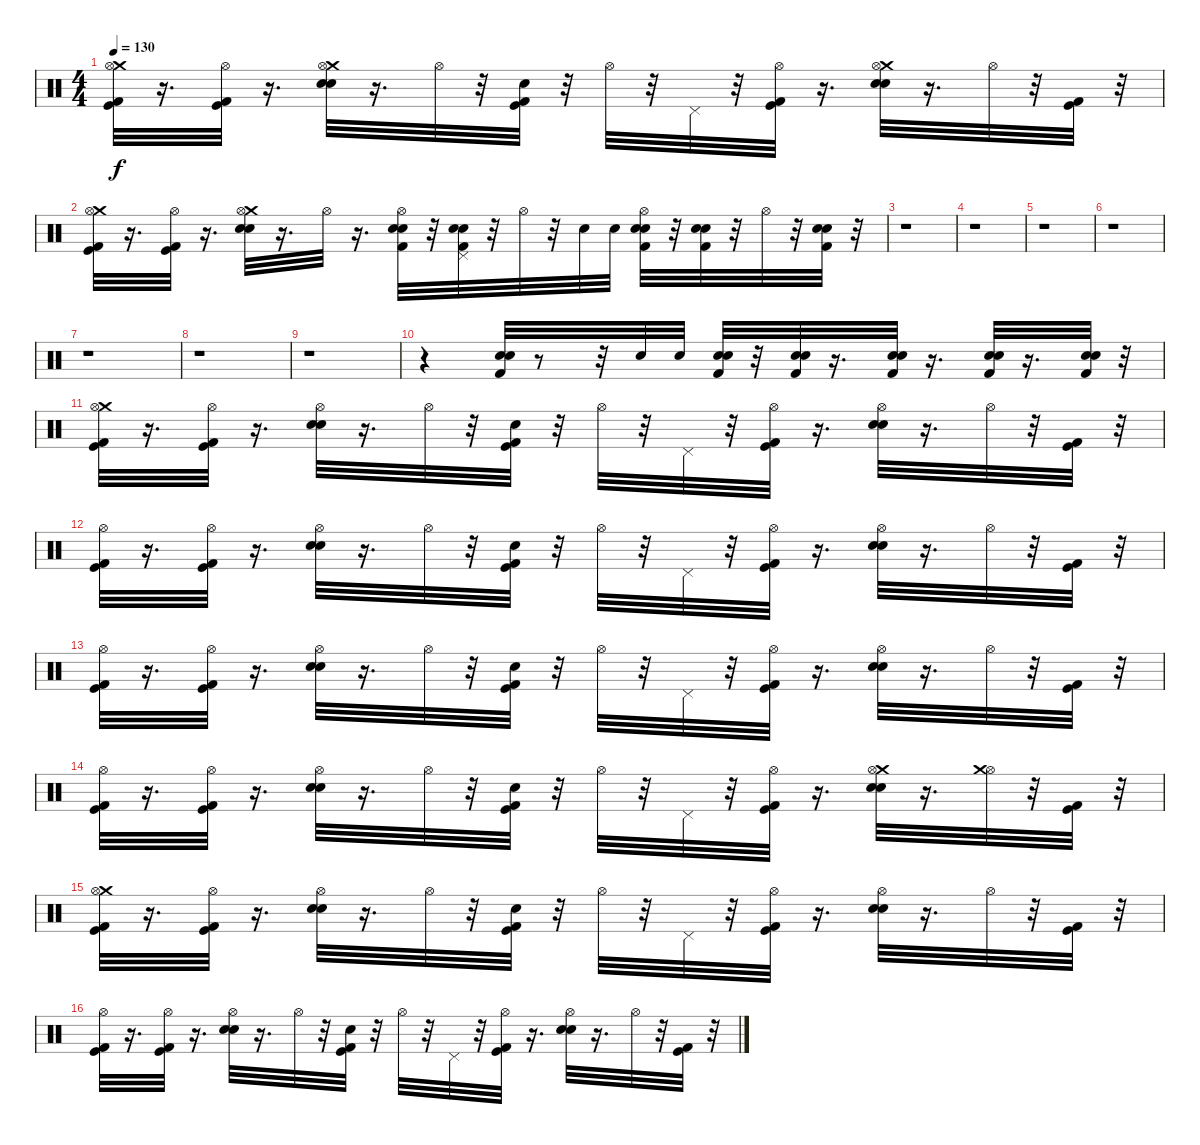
\track "" {instrument percussion}
\staff {score}
\articulation defaults
\ts (4 4)
\tempo 130
\clef neutral
\ks c
("Kick (hit) 2" "Kick (hit)" "Crash medium (hit)" "Hi-Hat (open)").32{dy f} r.16{d} ("Kick (hit) 2" "Kick (hit)" "Hi-Hat (open)").32 r.16{d} ("Snare (hit) 2" "Electric Snare (hit)" "Crash medium (hit)" "Hi-Hat (open)").32 r.16{d} "Hi-Hat (open)".32 r.32 ("Kick (hit) 2" "Kick (hit)" "Electric Snare (hit)").32 r.32 "Hi-Hat (open)".32 r.32 "Pedal Hi-Hat (hit)".32 r.32 ("Kick (hit) 2" "Kick (hit)" "Hi-Hat (open)").32 r.16{d} ("Snare (hit) 2" "Electric Snare (hit)" "Crash medium (hit)" "Hi-Hat (open)").32 r.16{d} "Hi-Hat (open)".32 r.32 ("Kick (hit) 2" "Kick (hit)").32 r.32 |
("Kick (hit) 2" "Kick (hit)" "Crash medium (hit)" "Hi-Hat (open)").32 r.16{d} ("Kick (hit) 2" "Kick (hit)" "Hi-Hat (open)").32 r.16{d} ("Snare (hit) 2" "Electric Snare (hit)" "Crash medium (hit)" "Hi-Hat (open)").32 r.16{d} "Hi-Hat (open)".32 r.16{d} ("Hi-Hat (open)" "Electric Snare (hit)" "Snare (hit) 2" "Kick (hit) 2").32 r.32 ("Electric Snare (hit)" "Snare (hit) 2" "Kick (hit) 2" "Pedal Hi-Hat (hit)").32 r.32 "Hi-Hat (open)".32 r.32 "Electric Snare (hit)".32 "Electric Snare (hit)".32 ("Hi-Hat (open)" "Snare (hit) 2" "Electric Snare (hit)" "Kick (hit) 2").32 r.32 ("Electric Snare (hit)" "Snare (hit) 2" "Kick (hit) 2").32 r.32 "Hi-Hat (open)".32 r.32 ("Electric Snare (hit)" "Snare (hit) 2" "Kick (hit) 2").32 r.32 |
r.1 |
r.1 |
r.1 |
r.1 |
r.1 |
r.1 |
r.1 |
r.4 ("Electric Snare (hit)" "Snare (hit) 2" "Kick (hit) 2").32 r.8 r.32 "Electric Snare (hit)".32 "Electric Snare (hit)".32 ("Snare (hit) 2" "Electric Snare (hit)" "Kick (hit) 2").32 r.32 ("Electric Snare (hit)" "Snare (hit) 2" "Kick (hit) 2").32 r.16{d} ("Electric Snare (hit)" "Snare (hit) 2" "Kick (hit) 2").32 r.16{d} ("Electric Snare (hit)" "Snare (hit) 2" "Kick (hit) 2").32 r.16{d} ("Electric Snare (hit)" "Snare (hit) 2" "Kick (hit) 2").32 r.32 |
("Kick (hit) 2" "Kick (hit)" "Crash medium (hit)" "Hi-Hat (open)").32 r.16{d} ("Kick (hit) 2" "Kick (hit)" "Hi-Hat (open)").32 r.16{d} ("Snare (hit) 2" "Electric Snare (hit)" "Hi-Hat (open)").32 r.16{d} "Hi-Hat (open)".32 r.32 ("Kick (hit) 2" "Kick (hit)" "Electric Snare (hit)").32 r.32 "Hi-Hat (open)".32 r.32 "Pedal Hi-Hat (hit)".32 r.32 ("Kick (hit) 2" "Kick (hit)" "Hi-Hat (open)").32 r.16{d} ("Snare (hit) 2" "Electric Snare (hit)" "Hi-Hat (open)").32 r.16{d} "Hi-Hat (open)".32 r.32 ("Kick (hit) 2" "Kick (hit)").32 r.32 |
("Kick (hit) 2" "Kick (hit)" "Hi-Hat (open)").32 r.16{d} ("Kick (hit) 2" "Kick (hit)" "Hi-Hat (open)").32 r.16{d} ("Snare (hit) 2" "Electric Snare (hit)" "Hi-Hat (open)").32 r.16{d} "Hi-Hat (open)".32 r.32 ("Kick (hit) 2" "Kick (hit)" "Electric Snare (hit)").32 r.32 "Hi-Hat (open)".32 r.32 "Pedal Hi-Hat (hit)".32 r.32 ("Kick (hit) 2" "Kick (hit)" "Hi-Hat (open)").32 r.16{d} ("Snare (hit) 2" "Electric Snare (hit)" "Hi-Hat (open)").32 r.16{d} "Hi-Hat (open)".32 r.32 ("Kick (hit) 2" "Kick (hit)").32 r.32 |
("Kick (hit) 2" "Kick (hit)" "Hi-Hat (open)").32 r.16{d} ("Kick (hit) 2" "Kick (hit)" "Hi-Hat (open)").32 r.16{d} ("Snare (hit) 2" "Electric Snare (hit)" "Hi-Hat (open)").32 r.16{d} "Hi-Hat (open)".32 r.32 ("Kick (hit) 2" "Kick (hit)" "Electric Snare (hit)").32 r.32 "Hi-Hat (open)".32 r.32 "Pedal Hi-Hat (hit)".32 r.32 ("Kick (hit) 2" "Kick (hit)" "Hi-Hat (open)").32 r.16{d} ("Snare (hit) 2" "Electric Snare (hit)" "Hi-Hat (open)").32 r.16{d} "Hi-Hat (open)".32 r.32 ("Kick (hit) 2" "Kick (hit)").32 r.32 |
("Kick (hit) 2" "Kick (hit)" "Hi-Hat (open)").32 r.16{d} ("Kick (hit) 2" "Kick (hit)" "Hi-Hat (open)").32 r.16{d} ("Snare (hit) 2" "Electric Snare (hit)" "Hi-Hat (open)").32 r.16{d} "Hi-Hat (open)".32 r.32 ("Kick (hit) 2" "Kick (hit)" "Electric Snare (hit)").32 r.32 "Hi-Hat (open)".32 r.32 "Pedal Hi-Hat (hit)".32 r.32 ("Kick (hit) 2" "Kick (hit)" "Hi-Hat (open)").32 r.16{d} ("Snare (hit) 2" "Electric Snare (hit)" "Crash medium (hit)" "Hi-Hat (open)").32 r.16{d} ("Hi-Hat (open)" "Crash medium (hit)").32 r.32 ("Kick (hit) 2" "Kick (hit)").32 r.32 |
("Kick (hit) 2" "Kick (hit)" "Crash medium (hit)" "Hi-Hat (open)").32 r.16{d} ("Kick (hit) 2" "Kick (hit)" "Hi-Hat (open)").32 r.16{d} ("Snare (hit) 2" "Electric Snare (hit)" "Hi-Hat (open)").32 r.16{d} "Hi-Hat (open)".32 r.32 ("Kick (hit) 2" "Kick (hit)" "Electric Snare (hit)").32 r.32 "Hi-Hat (open)".32 r.32 "Pedal Hi-Hat (hit)".32 r.32 ("Kick (hit) 2" "Kick (hit)" "Hi-Hat (open)").32 r.16{d} ("Snare (hit) 2" "Electric Snare (hit)" "Hi-Hat (open)").32 r.16{d} "Hi-Hat (open)".32 r.32 ("Kick (hit) 2" "Kick (hit)").32 r.32 |
("Kick (hit) 2" "Kick (hit)" "Hi-Hat (open)").32 r.16{d} ("Kick (hit) 2" "Kick (hit)" "Hi-Hat (open)").32 r.16{d} ("Snare (hit) 2" "Electric Snare (hit)" "Hi-Hat (open)").32 r.16{d} "Hi-Hat (open)".32 r.32 ("Kick (hit) 2" "Kick (hit)" "Electric Snare (hit)").32 r.32 "Hi-Hat (open)".32 r.32 "Pedal Hi-Hat (hit)".32 r.32 ("Kick (hit) 2" "Kick (hit)" "Hi-Hat (open)").32 r.16{d} ("Snare (hit) 2" "Electric Snare (hit)" "Hi-Hat (open)").32 r.16{d} "Hi-Hat (open)".32 r.32 ("Kick (hit) 2" "Kick (hit)").32 r.32
